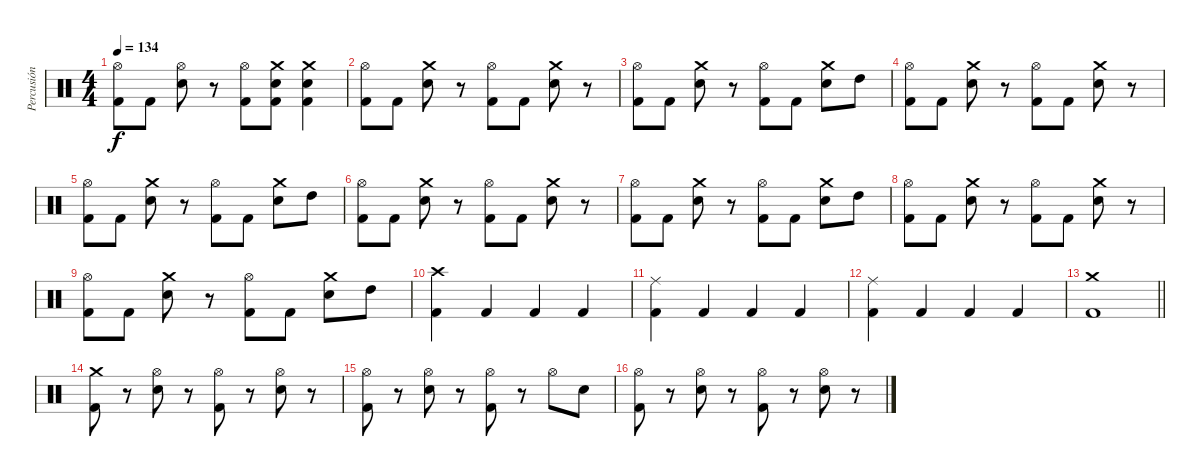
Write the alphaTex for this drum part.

\track ("Percusión" "Percusión") {instrument percussion}
\staff {score}
\articulation defaults
\ts (4 4)
\tempo 134
\clef neutral
\ks c
("Hi-Hat (open)" "Kick (hit) 2").8{dy f} "Kick (hit) 2".8 ("Hi-Hat (open)" "Snare (hit) 2").8 r.8 ("Hi-Hat (open)" "Kick (hit) 2").8 ("Crash medium (hit)" "Snare (hit) 2" "Kick (hit) 2").8 ("Crash medium (hit)" "Snare (hit) 2" "Kick (hit) 2").4 |
("Hi-Hat (open)" "Kick (hit) 2").8 "Kick (hit) 2".8 ("Crash medium (hit)" "Snare (hit) 2").8 r.8 ("Hi-Hat (open)" "Kick (hit) 2").8 "Kick (hit) 2".8 ("Crash medium (hit)" "Snare (hit) 2").8 r.8 |
("Hi-Hat (open)" "Kick (hit) 2").8 "Kick (hit) 2".8 ("Crash medium (hit)" "Snare (hit) 2").8 r.8 ("Hi-Hat (open)" "Kick (hit) 2").8 "Kick (hit) 2".8 ("Crash medium (hit)" "Snare (hit) 2").8 "High Tom (hit)".8 |
("Hi-Hat (open)" "Kick (hit) 2").8 "Kick (hit) 2".8 ("Crash medium (hit)" "Snare (hit) 2").8 r.8 ("Hi-Hat (open)" "Kick (hit) 2").8 "Kick (hit) 2".8 ("Crash medium (hit)" "Snare (hit) 2").8 r.8 |
("Hi-Hat (open)" "Kick (hit) 2").8 "Kick (hit) 2".8 ("Crash medium (hit)" "Snare (hit) 2").8 r.8 ("Hi-Hat (open)" "Kick (hit) 2").8 "Kick (hit) 2".8 ("Crash medium (hit)" "Snare (hit) 2").8 "High Tom (hit)".8 |
("Hi-Hat (open)" "Kick (hit) 2").8 "Kick (hit) 2".8 ("Crash medium (hit)" "Snare (hit) 2").8 r.8 ("Hi-Hat (open)" "Kick (hit) 2").8 "Kick (hit) 2".8 ("Crash medium (hit)" "Snare (hit) 2").8 r.8 |
("Hi-Hat (open)" "Kick (hit) 2").8 "Kick (hit) 2".8 ("Crash medium (hit)" "Snare (hit) 2").8 r.8 ("Hi-Hat (open)" "Kick (hit) 2").8 "Kick (hit) 2".8 ("Crash medium (hit)" "Snare (hit) 2").8 "High Tom (hit)".8 |
("Hi-Hat (open)" "Kick (hit) 2").8 "Kick (hit) 2".8 ("Crash medium (hit)" "Snare (hit) 2").8 r.8 ("Hi-Hat (open)" "Kick (hit) 2").8 "Kick (hit) 2".8 ("Crash medium (hit)" "Snare (hit) 2").8 r.8 |
("Hi-Hat (open)" "Kick (hit) 2").8 "Kick (hit) 2".8 ("Crash medium (hit)" "Snare (hit) 2").8 r.8 ("Hi-Hat (open)" "Kick (hit) 2").8 "Kick (hit) 2".8 ("Crash medium (hit)" "Snare (hit) 2").8 "High Tom (hit)".8 |
("Crash high (hit)" "Kick (hit) 2").4 "Kick (hit) 2".4 "Kick (hit) 2".4 "Kick (hit) 2".4 |
("Ride (middle)" "Kick (hit) 2").4 "Kick (hit) 2".4 "Kick (hit) 2".4 "Kick (hit) 2".4 |
("Ride (middle)" "Kick (hit) 2").4 "Kick (hit) 2".4 "Kick (hit) 2".4 "Kick (hit) 2".4 |
\barLineRight lightlight
("Crash medium (hit)" "Kick (hit) 2").1 |
("Crash medium (hit)" "Kick (hit) 2").8 r.8 ("Hi-Hat (open)" "Snare (hit) 2").8 r.8 ("Hi-Hat (open)" "Kick (hit) 2").8 r.8 ("Hi-Hat (open)" "Snare (hit) 2").8 r.8 |
("Hi-Hat (open)" "Kick (hit) 2").8 r.8 ("Hi-Hat (open)" "Snare (hit) 2").8 r.8 ("Hi-Hat (open)" "Kick (hit) 2").8 r.8 "Hi-Hat (open)".8 "Snare (hit) 2".8 |
("Hi-Hat (open)" "Kick (hit) 2").8 r.8 ("Hi-Hat (open)" "Snare (hit) 2").8 r.8 ("Hi-Hat (open)" "Kick (hit) 2").8 r.8 ("Hi-Hat (open)" "Snare (hit) 2").8 r.8
